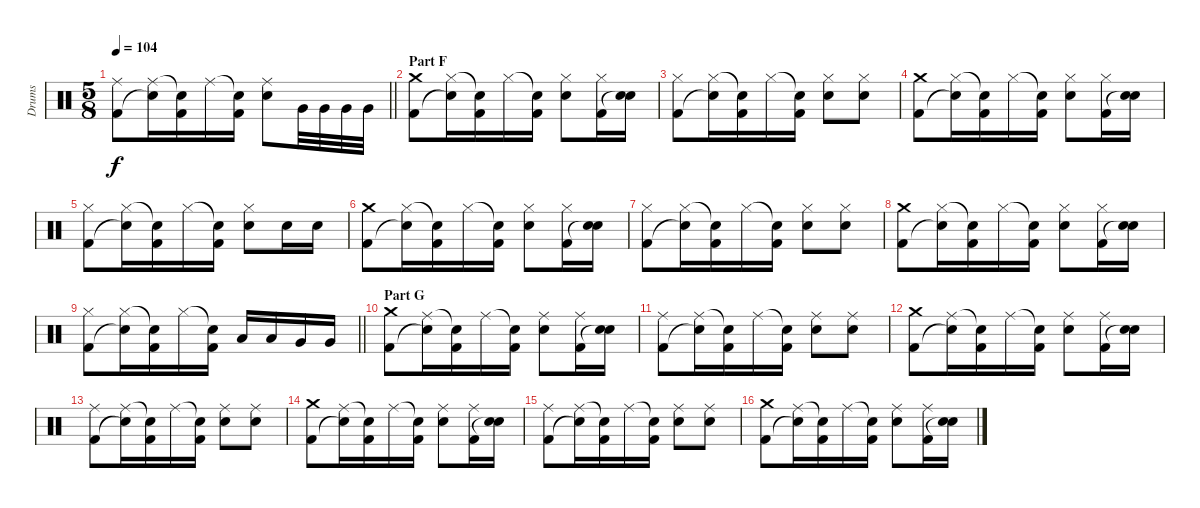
\track ("Drums" "Drums") {instrument percussion}
\staff {score}
\articulation defaults
\ts (5 8)
\tempo 104
\clef neutral
\barLineRight lightlight
\ks c
("Ride (middle)" "Kick (hit) 2").8{dy f} ("Ride (middle)" "Snare (hit)"{t}).16 ("Snare (hit)"{t} "Kick (hit) 2").16 "Ride (middle)".16 ("Snare (hit)"{t} "Kick (hit) 2").16 ("Ride (middle)" "Electric Snare (hit)").8 "Very Low Tom (hit)".32 "Very Low Tom (hit)".32 "Very Low Tom (hit)".32 "Very Low Tom (hit)".32 |
\section ("" "Part F")
("Crash medium (hit)" "Kick (hit) 2").8 ("Hi-Hat (closed)" "Snare (hit)"{t}).16 ("Snare (hit)"{t} "Kick (hit) 2").16 "Hi-Hat (closed)".16 ("Snare (hit)"{t} "Kick (hit) 2").16 ("Hi-Hat (closed)" "Electric Snare (hit)").8 ("Hi-Hat (closed)" "Kick (hit) 2").16 ("Electric Snare (hit)" "Snare (hit)"{t}).16 |
("Hi-Hat (closed)" "Kick (hit) 2").8 ("Hi-Hat (closed)" "Snare (hit)"{t}).16 ("Snare (hit)"{t} "Kick (hit) 2").16 "Hi-Hat (closed)".16 ("Snare (hit)"{t} "Kick (hit) 2").16 ("Hi-Hat (closed)" "Electric Snare (hit)").8 ("Hi-Hat (closed)" "Electric Snare (hit)").8 |
("Crash medium (hit)" "Kick (hit) 2").8 ("Hi-Hat (closed)" "Snare (hit)"{t}).16 ("Snare (hit)"{t} "Kick (hit) 2").16 "Hi-Hat (closed)".16 ("Snare (hit)"{t} "Kick (hit) 2").16 ("Hi-Hat (closed)" "Electric Snare (hit)").8 ("Hi-Hat (closed)" "Kick (hit) 2").16 ("Electric Snare (hit)" "Snare (hit)"{t}).16 |
("Hi-Hat (closed)" "Kick (hit) 2").8 ("Hi-Hat (closed)" "Snare (hit)"{t}).16 ("Snare (hit)"{t} "Kick (hit) 2").16 "Hi-Hat (closed)".16 ("Snare (hit)"{t} "Kick (hit) 2").16 ("Hi-Hat (closed)" "Electric Snare (hit)").8 "Electric Snare (hit)".16 "Electric Snare (hit)".16 |
("Crash medium (hit)" "Kick (hit) 2").8 ("Hi-Hat (closed)" "Snare (hit)"{t}).16 ("Snare (hit)"{t} "Kick (hit) 2").16 "Hi-Hat (closed)".16 ("Snare (hit)"{t} "Kick (hit) 2").16 ("Hi-Hat (closed)" "Electric Snare (hit)").8 ("Hi-Hat (closed)" "Kick (hit) 2").16 ("Electric Snare (hit)" "Snare (hit)"{t}).16 |
("Hi-Hat (closed)" "Kick (hit) 2").8 ("Hi-Hat (closed)" "Snare (hit)"{t}).16 ("Snare (hit)"{t} "Kick (hit) 2").16 "Hi-Hat (closed)".16 ("Snare (hit)"{t} "Kick (hit) 2").16 ("Hi-Hat (closed)" "Electric Snare (hit)").8 ("Hi-Hat (closed)" "Electric Snare (hit)").8 |
("Crash medium (hit)" "Kick (hit) 2").8 ("Hi-Hat (closed)" "Snare (hit)"{t}).16 ("Snare (hit)"{t} "Kick (hit) 2").16 "Hi-Hat (closed)".16 ("Snare (hit)"{t} "Kick (hit) 2").16 ("Hi-Hat (closed)" "Electric Snare (hit)").8 ("Hi-Hat (closed)" "Kick (hit) 2").16 ("Electric Snare (hit)" "Snare (hit)"{t}).16 |
\barLineRight lightlight
("Hi-Hat (closed)" "Kick (hit) 2").8 ("Hi-Hat (closed)" "Snare (hit)"{t}).16 ("Snare (hit)"{t} "Kick (hit) 2").16 "Hi-Hat (closed)".16 ("Snare (hit)"{t} "Kick (hit) 2").16 "Low Tom (hit)".16 "Low Tom (hit)".16 "Very Low Tom (hit)".16 "Very Low Tom (hit)".16 |
\section ("" "Part G")
("Crash medium (hit)" "Kick (hit) 2").8 ("Ride (middle)" "Snare (hit)"{t}).16 ("Snare (hit)"{t} "Kick (hit) 2").16 "Ride (middle)".16 ("Snare (hit)"{t} "Kick (hit) 2").16 ("Ride (middle)" "Electric Snare (hit)").8 ("Ride (middle)" "Kick (hit) 2").16 ("Electric Snare (hit)" "Snare (hit)"{t}).16 |
("Ride (middle)" "Kick (hit) 2").8 ("Ride (middle)" "Snare (hit)"{t}).16 ("Snare (hit)"{t} "Kick (hit) 2").16 "Ride (middle)".16 ("Snare (hit)"{t} "Kick (hit) 2").16 ("Ride (middle)" "Electric Snare (hit)").8 ("Ride (middle)" "Electric Snare (hit)").8 |
("Crash medium (hit)" "Kick (hit) 2").8 ("Ride (middle)" "Snare (hit)"{t}).16 ("Snare (hit)"{t} "Kick (hit) 2").16 "Ride (middle)".16 ("Snare (hit)"{t} "Kick (hit) 2").16 ("Ride (middle)" "Electric Snare (hit)").8 ("Ride (middle)" "Kick (hit) 2").16 ("Electric Snare (hit)" "Snare (hit)"{t}).16 |
("Ride (middle)" "Kick (hit) 2").8 ("Ride (middle)" "Snare (hit)"{t}).16 ("Snare (hit)"{t} "Kick (hit) 2").16 "Ride (middle)".16 ("Snare (hit)"{t} "Kick (hit) 2").16 ("Ride (middle)" "Electric Snare (hit)").8 ("Ride (middle)" "Electric Snare (hit)").8 |
("Crash medium (hit)" "Kick (hit) 2").8 ("Ride (middle)" "Snare (hit)"{t}).16 ("Snare (hit)"{t} "Kick (hit) 2").16 "Ride (middle)".16 ("Snare (hit)"{t} "Kick (hit) 2").16 ("Ride (middle)" "Electric Snare (hit)").8 ("Ride (middle)" "Kick (hit) 2").16 ("Electric Snare (hit)" "Snare (hit)"{t}).16 |
("Ride (middle)" "Kick (hit) 2").8 ("Ride (middle)" "Snare (hit)"{t}).16 ("Snare (hit)"{t} "Kick (hit) 2").16 "Ride (middle)".16 ("Snare (hit)"{t} "Kick (hit) 2").16 ("Ride (middle)" "Electric Snare (hit)").8 ("Ride (middle)" "Electric Snare (hit)").8 |
("Crash medium (hit)" "Kick (hit) 2").8 ("Ride (middle)" "Snare (hit)"{t}).16 ("Snare (hit)"{t} "Kick (hit) 2").16 "Ride (middle)".16 ("Snare (hit)"{t} "Kick (hit) 2").16 ("Ride (middle)" "Electric Snare (hit)").8 ("Ride (middle)" "Kick (hit) 2").16 ("Electric Snare (hit)" "Snare (hit)"{t}).16
